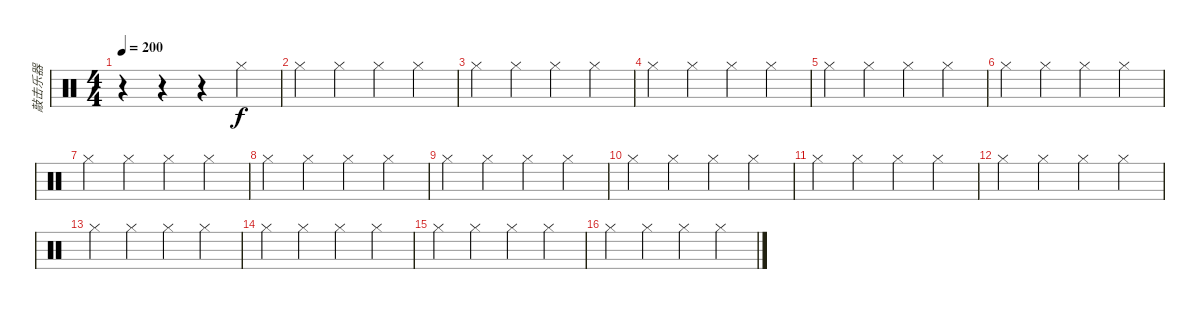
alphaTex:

\track ("敲击乐器" "敲击乐器") {instrument percussion}
\staff {score}
\articulation defaults
\ts (4 4)
\tempo 200
\clef neutral
\ks c
r.4{dy f} r.4 r.4 "Hi-Hat (closed)".4 |
"Hi-Hat (closed)".4 "Hi-Hat (closed)".4 "Hi-Hat (closed)".4 "Hi-Hat (closed)".4 |
"Hi-Hat (closed)".4 "Hi-Hat (closed)".4 "Hi-Hat (closed)".4 "Hi-Hat (closed)".4 |
"Hi-Hat (closed)".4 "Hi-Hat (closed)".4 "Hi-Hat (closed)".4 "Hi-Hat (closed)".4 |
"Hi-Hat (closed)".4 "Hi-Hat (closed)".4 "Hi-Hat (closed)".4 "Hi-Hat (closed)".4 |
"Hi-Hat (closed)".4 "Hi-Hat (closed)".4 "Hi-Hat (closed)".4 "Hi-Hat (closed)".4 |
"Hi-Hat (closed)".4 "Hi-Hat (closed)".4 "Hi-Hat (closed)".4 "Hi-Hat (closed)".4 |
"Hi-Hat (closed)".4 "Hi-Hat (closed)".4 "Hi-Hat (closed)".4 "Hi-Hat (closed)".4 |
"Hi-Hat (closed)".4 "Hi-Hat (closed)".4 "Hi-Hat (closed)".4 "Hi-Hat (closed)".4 |
"Hi-Hat (closed)".4 "Hi-Hat (closed)".4 "Hi-Hat (closed)".4 "Hi-Hat (closed)".4 |
"Hi-Hat (closed)".4 "Hi-Hat (closed)".4 "Hi-Hat (closed)".4 "Hi-Hat (closed)".4 |
"Hi-Hat (closed)".4 "Hi-Hat (closed)".4 "Hi-Hat (closed)".4 "Hi-Hat (closed)".4 |
"Hi-Hat (closed)".4 "Hi-Hat (closed)".4 "Hi-Hat (closed)".4 "Hi-Hat (closed)".4 |
"Hi-Hat (closed)".4 "Hi-Hat (closed)".4 "Hi-Hat (closed)".4 "Hi-Hat (closed)".4 |
"Hi-Hat (closed)".4 "Hi-Hat (closed)".4 "Hi-Hat (closed)".4 "Hi-Hat (closed)".4 |
"Hi-Hat (closed)".4 "Hi-Hat (closed)".4 "Hi-Hat (closed)".4 "Hi-Hat (closed)".4
